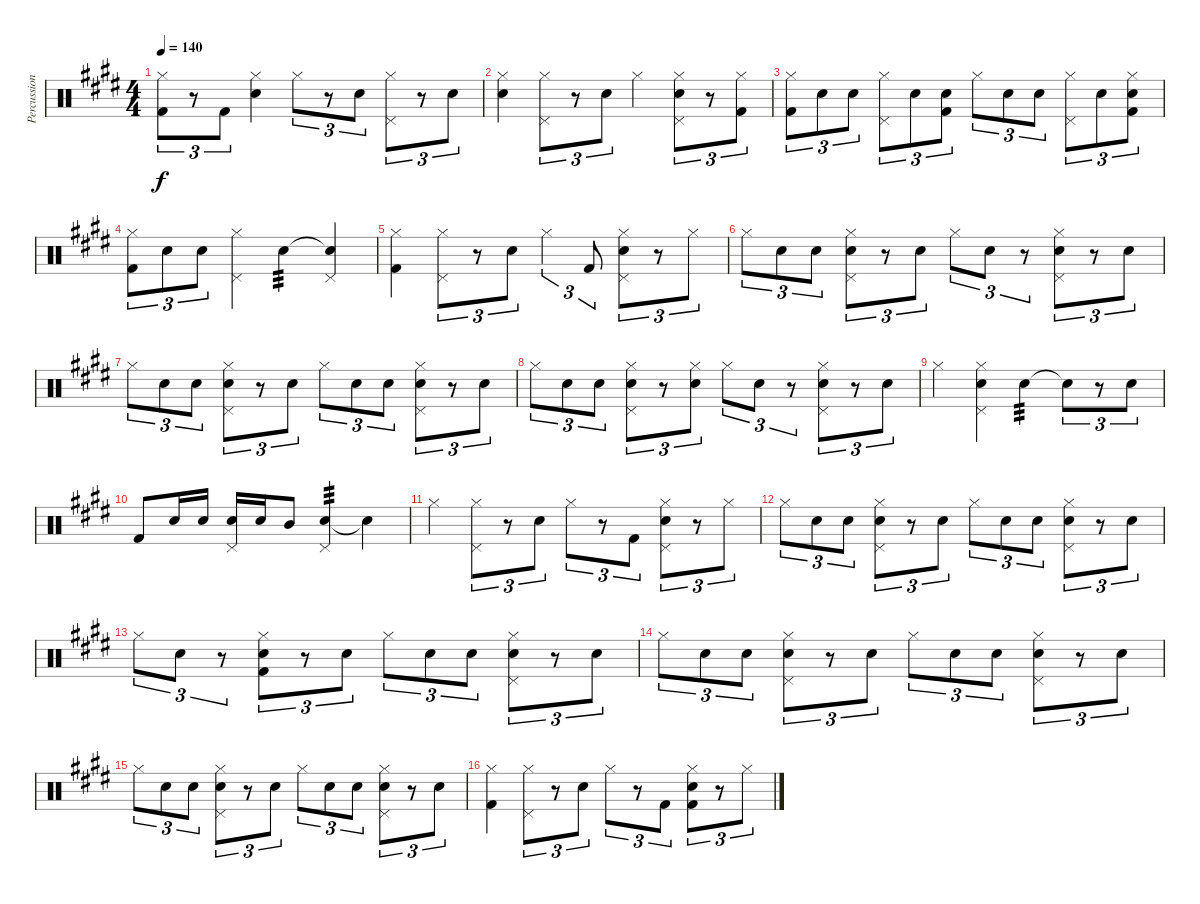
\track ("Percussion" "Percussion") {instrument percussion}
\staff {score}
\articulation defaults
\ts (4 4)
\tempo 140
\clef neutral
\ks e
("Hi-Hat (closed)" "Kick (hit) 2").8{tu (3 2) dy f} r.8{tu (3 2)} "Kick (hit) 2".8{tu (3 2)} ("Hi-Hat (closed)" "Snare (hit) 2").4 "Hi-Hat (closed)".8{tu (3 2)} r.8{tu (3 2)} "Snare (hit) 2".8{tu (3 2)} ("Hi-Hat (closed)" "Pedal Hi-Hat (hit)").8{tu (3 2)} r.8{tu (3 2)} "Snare (hit) 2".8{tu (3 2)} |
("Hi-Hat (closed)" "Snare (hit) 2").4 ("Hi-Hat (closed)" "Pedal Hi-Hat (hit)").8{tu (3 2)} r.8{tu (3 2)} "Snare (hit) 2".8{tu (3 2)} "Hi-Hat (closed)".4 ("Hi-Hat (closed)" "Snare (hit) 2" "Pedal Hi-Hat (hit)").8{tu (3 2)} r.8{tu (3 2)} ("Hi-Hat (closed)" "Kick (hit) 2").8{tu (3 2)} |
("Hi-Hat (closed)" "Kick (hit) 2").8{tu (3 2)} "Snare (hit) 2".8{tu (3 2)} "Snare (hit) 2".8{tu (3 2)} ("Hi-Hat (closed)" "Pedal Hi-Hat (hit)").8{tu (3 2)} "Snare (hit) 2".8{tu (3 2)} ("Snare (hit) 2" "Kick (hit) 2").8{tu (3 2)} "Hi-Hat (closed)".8{tu (3 2)} "Snare (hit) 2".8{tu (3 2)} "Snare (hit) 2".8{tu (3 2)} ("Hi-Hat (closed)" "Pedal Hi-Hat (hit)").8{tu (3 2)} "Snare (hit) 2".8{tu (3 2)} ("Hi-Hat (closed)" "Snare (hit) 2" "Kick (hit) 2").8{tu (3 2)} |
("Hi-Hat (closed)" "Kick (hit) 2").8{tu (3 2)} "Snare (hit) 2".8{tu (3 2)} "Snare (hit) 2".8{tu (3 2)} ("Hi-Hat (closed)" "Pedal Hi-Hat (hit)").4 "Snare (hit) 2".4{tp 3} ("Snare (hit)"{t} "Pedal Hi-Hat (hit)").4 |
("Hi-Hat (closed)" "Kick (hit) 2").4 ("Hi-Hat (closed)" "Pedal Hi-Hat (hit)").8{tu (3 2)} r.8{tu (3 2)} "Snare (hit) 2".8{tu (3 2)} "Hi-Hat (closed)".4{tu (3 2)} "Kick (hit) 2".8{tu (3 2)} ("Hi-Hat (closed)" "Snare (hit) 2" "Pedal Hi-Hat (hit)").8{tu (3 2)} r.8{tu (3 2)} "Hi-Hat (closed)".8{tu (3 2)} |
"Hi-Hat (closed)".8{tu (3 2)} "Snare (hit) 2".8{tu (3 2)} "Snare (hit) 2".8{tu (3 2)} ("Hi-Hat (closed)" "Snare (hit) 2" "Pedal Hi-Hat (hit)").8{tu (3 2)} r.8{tu (3 2)} "Snare (hit) 2".8{tu (3 2)} "Hi-Hat (closed)".8{tu (3 2)} "Snare (hit) 2".8{tu (3 2)} r.8{tu (3 2)} ("Hi-Hat (closed)" "Snare (hit) 2" "Pedal Hi-Hat (hit)").8{tu (3 2)} r.8{tu (3 2)} "Snare (hit) 2".8{tu (3 2)} |
"Hi-Hat (closed)".8{tu (3 2)} "Snare (hit) 2".8{tu (3 2)} "Snare (hit) 2".8{tu (3 2)} ("Hi-Hat (closed)" "Snare (hit) 2" "Pedal Hi-Hat (hit)").8{tu (3 2)} r.8{tu (3 2)} "Snare (hit) 2".8{tu (3 2)} "Hi-Hat (closed)".8{tu (3 2)} "Snare (hit) 2".8{tu (3 2)} "Snare (hit) 2".8{tu (3 2)} ("Hi-Hat (closed)" "Snare (hit) 2" "Pedal Hi-Hat (hit)").8{tu (3 2)} r.8{tu (3 2)} "Snare (hit) 2".8{tu (3 2)} |
"Hi-Hat (closed)".8{tu (3 2)} "Snare (hit) 2".8{tu (3 2)} "Snare (hit) 2".8{tu (3 2)} ("Hi-Hat (closed)" "Snare (hit) 2" "Pedal Hi-Hat (hit)").8{tu (3 2)} r.8{tu (3 2)} ("Hi-Hat (closed)" "Snare (hit) 2").8{tu (3 2)} "Hi-Hat (closed)".8{tu (3 2)} "Snare (hit) 2".8{tu (3 2)} r.8{tu (3 2)} ("Hi-Hat (closed)" "Snare (hit) 2" "Pedal Hi-Hat (hit)").8{tu (3 2)} r.8{tu (3 2)} "Snare (hit) 2".8{tu (3 2)} |
"Hi-Hat (closed)".4 ("Hi-Hat (closed)" "Snare (hit) 2" "Pedal Hi-Hat (hit)").4 "Snare (hit) 2".4{tp 3} "Snare (hit)"{t}.8{tu (3 2)} r.8{tu (3 2)} "Snare (hit) 2".8{tu (3 2)} |
"Kick (hit) 2".8 "Snare (hit) 2".16 "Snare (hit) 2".16 ("Snare (hit) 2" "Pedal Hi-Hat (hit)").16 "Snare (hit) 2".16 "Mid Tom (hit)".8 ("Snare (hit) 2" "Pedal Hi-Hat (hit)").4{tp 3} "Snare (hit)"{t}.4 |
"Hi-Hat (closed)".4 ("Hi-Hat (closed)" "Pedal Hi-Hat (hit)").8{tu (3 2)} r.8{tu (3 2)} "Snare (hit) 2".8{tu (3 2)} "Hi-Hat (closed)".8{tu (3 2)} r.8{tu (3 2)} "Kick (hit) 2".8{tu (3 2)} ("Hi-Hat (closed)" "Snare (hit) 2" "Pedal Hi-Hat (hit)").8{tu (3 2)} r.8{tu (3 2)} "Hi-Hat (closed)".8{tu (3 2)} |
"Hi-Hat (closed)".8{tu (3 2)} "Snare (hit) 2".8{tu (3 2)} "Snare (hit) 2".8{tu (3 2)} ("Hi-Hat (closed)" "Snare (hit) 2" "Pedal Hi-Hat (hit)").8{tu (3 2)} r.8{tu (3 2)} "Snare (hit) 2".8{tu (3 2)} "Hi-Hat (closed)".8{tu (3 2)} "Snare (hit) 2".8{tu (3 2)} "Snare (hit) 2".8{tu (3 2)} ("Hi-Hat (closed)" "Snare (hit) 2" "Pedal Hi-Hat (hit)").8{tu (3 2)} r.8{tu (3 2)} "Snare (hit) 2".8{tu (3 2)} |
"Hi-Hat (closed)".8{tu (3 2)} "Snare (hit) 2".8{tu (3 2)} r.8{tu (3 2)} ("Hi-Hat (closed)" "Snare (hit) 2" "Kick (hit) 2").8{tu (3 2)} r.8{tu (3 2)} "Snare (hit) 2".8{tu (3 2)} "Hi-Hat (closed)".8{tu (3 2)} "Snare (hit) 2".8{tu (3 2)} "Snare (hit) 2".8{tu (3 2)} ("Hi-Hat (closed)" "Snare (hit) 2" "Pedal Hi-Hat (hit)").8{tu (3 2)} r.8{tu (3 2)} "Snare (hit) 2".8{tu (3 2)} |
"Hi-Hat (closed)".8{tu (3 2)} "Snare (hit) 2".8{tu (3 2)} "Snare (hit) 2".8{tu (3 2)} ("Hi-Hat (closed)" "Snare (hit) 2" "Pedal Hi-Hat (hit)").8{tu (3 2)} r.8{tu (3 2)} "Snare (hit) 2".8{tu (3 2)} "Hi-Hat (closed)".8{tu (3 2)} "Snare (hit) 2".8{tu (3 2)} "Snare (hit) 2".8{tu (3 2)} ("Hi-Hat (closed)" "Snare (hit) 2" "Pedal Hi-Hat (hit)").8{tu (3 2)} r.8{tu (3 2)} "Snare (hit) 2".8{tu (3 2)} |
"Hi-Hat (closed)".8{tu (3 2)} "Snare (hit) 2".8{tu (3 2)} "Snare (hit) 2".8{tu (3 2)} ("Hi-Hat (closed)" "Snare (hit) 2" "Pedal Hi-Hat (hit)").8{tu (3 2)} r.8{tu (3 2)} "Snare (hit) 2".8{tu (3 2)} "Hi-Hat (closed)".8{tu (3 2)} "Snare (hit) 2".8{tu (3 2)} "Snare (hit) 2".8{tu (3 2)} ("Hi-Hat (closed)" "Snare (hit) 2" "Pedal Hi-Hat (hit)").8{tu (3 2)} r.8{tu (3 2)} "Snare (hit) 2".8{tu (3 2)} |
("Hi-Hat (closed)" "Kick (hit) 2").4 ("Hi-Hat (closed)" "Pedal Hi-Hat (hit)").8{tu (3 2)} r.8{tu (3 2)} "Snare (hit) 2".8{tu (3 2)} "Hi-Hat (closed)".8{tu (3 2)} r.8{tu (3 2)} "Kick (hit) 2".8{tu (3 2)} ("Hi-Hat (closed)" "Snare (hit) 2" "Kick (hit) 2").8{tu (3 2)} r.8{tu (3 2)} "Hi-Hat (closed)".8{tu (3 2)}
